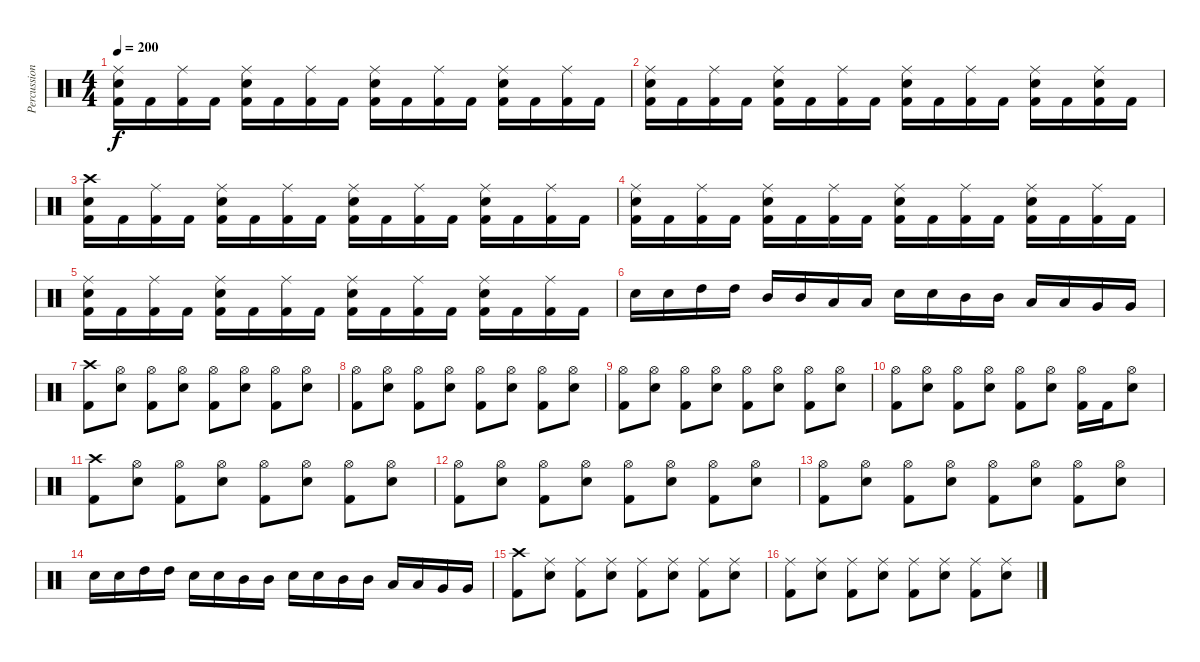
\track ("Percussions" "Percussion") {instrument percussion}
\staff {score}
\articulation defaults
\ts (4 4)
\tempo 200
\clef neutral
\ks c
("Ride (middle)" "Electric Snare (hit)" "Kick (hit) 2").16{dy f} "Kick (hit) 2".16 ("Ride (middle)" "Kick (hit) 2").16 "Kick (hit) 2".16 ("Ride (middle)" "Electric Snare (hit)" "Kick (hit) 2").16 "Kick (hit) 2".16 ("Ride (middle)" "Kick (hit) 2").16 "Kick (hit) 2".16 ("Ride (middle)" "Electric Snare (hit)" "Kick (hit) 2").16 "Kick (hit) 2".16 ("Ride (middle)" "Kick (hit) 2").16 "Kick (hit) 2".16 ("Ride (middle)" "Electric Snare (hit)" "Kick (hit) 2").16 "Kick (hit) 2".16 ("Ride (middle)" "Kick (hit) 2").16 "Kick (hit) 2".16 |
("Ride (middle)" "Electric Snare (hit)" "Kick (hit) 2").16 "Kick (hit) 2".16 ("Ride (middle)" "Kick (hit) 2").16 "Kick (hit) 2".16 ("Ride (middle)" "Electric Snare (hit)" "Kick (hit) 2").16 "Kick (hit) 2".16 ("Ride (middle)" "Kick (hit) 2").16 "Kick (hit) 2".16 ("Ride (middle)" "Electric Snare (hit)" "Kick (hit) 2").16 "Kick (hit) 2".16 ("Ride (middle)" "Kick (hit) 2").16 "Kick (hit) 2".16 ("Ride (middle)" "Electric Snare (hit)" "Kick (hit) 2").16 "Kick (hit) 2".16 ("Ride (middle)" "Electric Snare (hit)" "Kick (hit) 2").16 "Kick (hit) 2".16 |
("Crash high (hit)" "Electric Snare (hit)" "Kick (hit) 2").16 "Kick (hit) 2".16 ("Ride (middle)" "Kick (hit) 2").16 "Kick (hit) 2".16 ("Ride (middle)" "Electric Snare (hit)" "Kick (hit) 2").16 "Kick (hit) 2".16 ("Ride (middle)" "Kick (hit) 2").16 "Kick (hit) 2".16 ("Ride (middle)" "Electric Snare (hit)" "Kick (hit) 2").16 "Kick (hit) 2".16 ("Ride (middle)" "Kick (hit) 2").16 "Kick (hit) 2".16 ("Ride (middle)" "Electric Snare (hit)" "Kick (hit) 2").16 "Kick (hit) 2".16 ("Ride (middle)" "Kick (hit) 2").16 "Kick (hit) 2".16 |
("Ride (middle)" "Electric Snare (hit)" "Kick (hit) 2").16 "Kick (hit) 2".16 ("Ride (middle)" "Kick (hit) 2").16 "Kick (hit) 2".16 ("Ride (middle)" "Electric Snare (hit)" "Kick (hit) 2").16 "Kick (hit) 2".16 ("Ride (middle)" "Kick (hit) 2").16 "Kick (hit) 2".16 ("Ride (middle)" "Electric Snare (hit)" "Kick (hit) 2").16 "Kick (hit) 2".16 ("Ride (middle)" "Kick (hit) 2").16 "Kick (hit) 2".16 ("Ride (middle)" "Electric Snare (hit)" "Kick (hit) 2").16 "Kick (hit) 2".16 ("Ride (middle)" "Kick (hit) 2").16 "Kick (hit) 2".16 |
("Ride (middle)" "Electric Snare (hit)" "Kick (hit) 2").16 "Kick (hit) 2".16 ("Ride (middle)" "Kick (hit) 2").16 "Kick (hit) 2".16 ("Ride (middle)" "Electric Snare (hit)" "Kick (hit) 2").16 "Kick (hit) 2".16 ("Ride (middle)" "Kick (hit) 2").16 "Kick (hit) 2".16 ("Ride (middle)" "Electric Snare (hit)" "Kick (hit) 2").16 "Kick (hit) 2".16 ("Ride (middle)" "Kick (hit) 2").16 "Kick (hit) 2".16 ("Ride (middle)" "Electric Snare (hit)" "Kick (hit) 2").16 "Kick (hit) 2".16 ("Ride (middle)" "Kick (hit) 2").16 "Kick (hit) 2".16 |
"Electric Snare (hit)".16 "Electric Snare (hit)".16 "High Tom (hit)".16 "High Tom (hit)".16 "Mid Tom (hit)".16 "Mid Tom (hit)".16 "Low Tom (hit)".16 "Low Tom (hit)".16 "Electric Snare (hit)".16 "Electric Snare (hit)".16 "Mid Tom (hit)".16 "Mid Tom (hit)".16 "Low Tom (hit)".16 "Low Tom (hit)".16 "Very Low Tom (hit)".16 "Very Low Tom (hit)".16 |
("Crash high (hit)" "Kick (hit) 2").8 ("Hi-Hat (open)" "Electric Snare (hit)").8 ("Hi-Hat (open)" "Kick (hit) 2").8 ("Hi-Hat (open)" "Electric Snare (hit)").8 ("Hi-Hat (open)" "Kick (hit) 2").8 ("Hi-Hat (open)" "Electric Snare (hit)").8 ("Hi-Hat (open)" "Kick (hit) 2").8 ("Hi-Hat (open)" "Electric Snare (hit)").8 |
("Hi-Hat (open)" "Kick (hit) 2").8 ("Hi-Hat (open)" "Electric Snare (hit)").8 ("Hi-Hat (open)" "Kick (hit) 2").8 ("Hi-Hat (open)" "Electric Snare (hit)").8 ("Hi-Hat (open)" "Kick (hit) 2").8 ("Hi-Hat (open)" "Electric Snare (hit)").8 ("Hi-Hat (open)" "Kick (hit) 2").8 ("Hi-Hat (open)" "Electric Snare (hit)").8 |
("Hi-Hat (open)" "Kick (hit) 2").8 ("Hi-Hat (open)" "Electric Snare (hit)").8 ("Hi-Hat (open)" "Kick (hit) 2").8 ("Hi-Hat (open)" "Electric Snare (hit)").8 ("Hi-Hat (open)" "Kick (hit) 2").8 ("Hi-Hat (open)" "Electric Snare (hit)").8 ("Hi-Hat (open)" "Kick (hit) 2").8 ("Hi-Hat (open)" "Electric Snare (hit)").8 |
("Hi-Hat (open)" "Kick (hit) 2").8 ("Hi-Hat (open)" "Electric Snare (hit)").8 ("Hi-Hat (open)" "Kick (hit) 2").8 ("Hi-Hat (open)" "Electric Snare (hit)").8 ("Hi-Hat (open)" "Kick (hit) 2").8 ("Hi-Hat (open)" "Electric Snare (hit)").8 ("Hi-Hat (open)" "Kick (hit) 2").16 "Kick (hit) 2".16 ("Hi-Hat (open)" "Electric Snare (hit)").8 |
("Crash high (hit)" "Kick (hit) 2").8 ("Hi-Hat (open)" "Electric Snare (hit)").8 ("Hi-Hat (open)" "Kick (hit) 2").8 ("Hi-Hat (open)" "Electric Snare (hit)").8 ("Hi-Hat (open)" "Kick (hit) 2").8 ("Hi-Hat (open)" "Electric Snare (hit)").8 ("Hi-Hat (open)" "Kick (hit) 2").8 ("Hi-Hat (open)" "Electric Snare (hit)").8 |
("Hi-Hat (open)" "Kick (hit) 2").8 ("Hi-Hat (open)" "Electric Snare (hit)").8 ("Hi-Hat (open)" "Kick (hit) 2").8 ("Hi-Hat (open)" "Electric Snare (hit)").8 ("Hi-Hat (open)" "Kick (hit) 2").8 ("Hi-Hat (open)" "Electric Snare (hit)").8 ("Hi-Hat (open)" "Kick (hit) 2").8 ("Hi-Hat (open)" "Electric Snare (hit)").8 |
("Hi-Hat (open)" "Kick (hit) 2").8 ("Hi-Hat (open)" "Electric Snare (hit)").8 ("Hi-Hat (open)" "Kick (hit) 2").8 ("Hi-Hat (open)" "Electric Snare (hit)").8 ("Hi-Hat (open)" "Kick (hit) 2").8 ("Hi-Hat (open)" "Electric Snare (hit)").8 ("Hi-Hat (open)" "Kick (hit) 2").8 ("Hi-Hat (open)" "Electric Snare (hit)").8 |
"Electric Snare (hit)".16 "Electric Snare (hit)".16 "High Tom (hit)".16 "High Tom (hit)".16 "Electric Snare (hit)".16 "Electric Snare (hit)".16 "Mid Tom (hit)".16 "Mid Tom (hit)".16 "Electric Snare (hit)".16 "Electric Snare (hit)".16 "Mid Tom (hit)".16 "Mid Tom (hit)".16 "Low Tom (hit)".16 "Low Tom (hit)".16 "Very Low Tom (hit)".16 "Very Low Tom (hit)".16 |
("Crash high (hit)" "Kick (hit) 2").8 ("Ride (middle)" "Electric Snare (hit)").8 ("Ride (middle)" "Kick (hit) 2").8 ("Ride (middle)" "Electric Snare (hit)").8 ("Ride (middle)" "Kick (hit) 2").8 ("Ride (middle)" "Electric Snare (hit)").8 ("Ride (middle)" "Kick (hit) 2").8 ("Ride (middle)" "Electric Snare (hit)").8 |
("Ride (middle)" "Kick (hit) 2").8 ("Ride (middle)" "Electric Snare (hit)").8 ("Ride (middle)" "Kick (hit) 2").8 ("Ride (middle)" "Electric Snare (hit)").8 ("Ride (middle)" "Kick (hit) 2").8 ("Ride (middle)" "Electric Snare (hit)").8 ("Ride (middle)" "Kick (hit) 2").8 ("Ride (middle)" "Electric Snare (hit)").8
